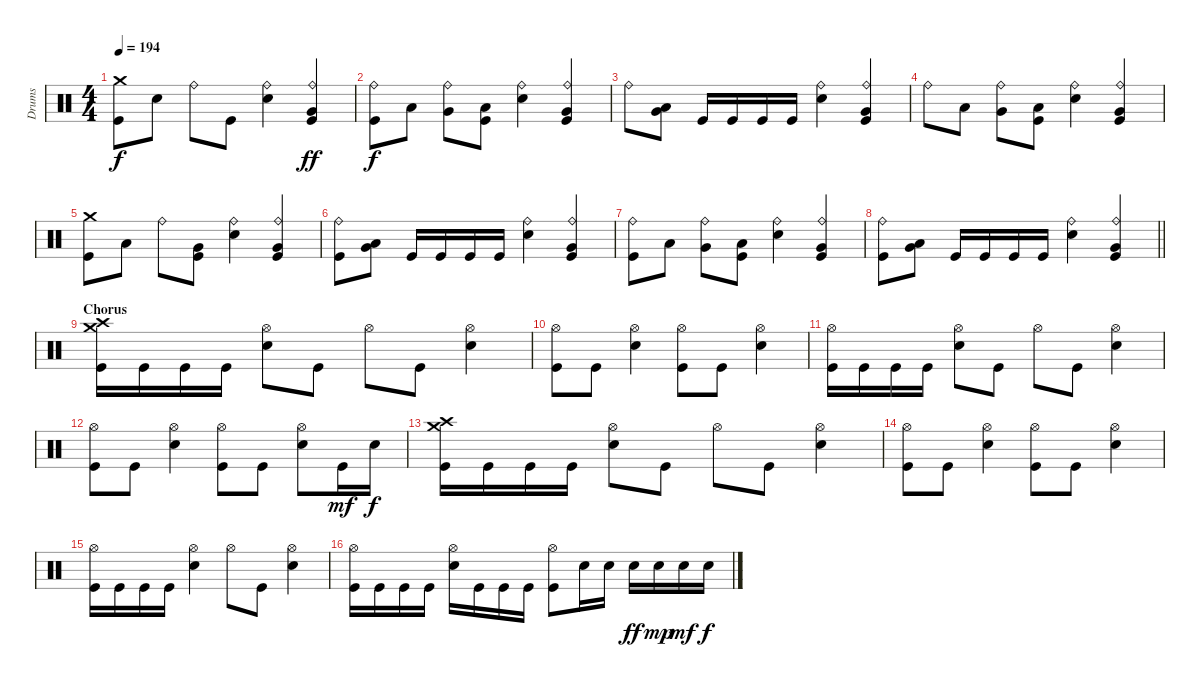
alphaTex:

\track ("Drums" "Drums") {instrument percussion}
\staff {score}
\articulation defaults
\ts (4 4)
\tempo 194
\clef neutral
\ks c
("Crash medium (hit)" "Kick (hit)").8{dy f} "Snare (hit) 2".8 "Ride (bell)".8 "Kick (hit)".8 ("Ride (bell)" "Snare (hit) 2").4 ("Ride (bell)" "Very Low Tom (hit)" "Kick (hit)").4{dy ff} |
("Ride (bell)" "Kick (hit)").8{dy f} "Low Tom (hit)".8 ("Ride (bell)" "Very Low Tom (hit)").8 ("Low Floor Tom (hit)" "Kick (hit)").8 ("Ride (bell)" "Snare (hit) 2").4 ("Ride (bell)" "Very Low Tom (hit)" "Kick (hit)").4 |
"Ride (bell)".8 ("Low Tom (hit)" "Very Low Tom (hit)").8 "Kick (hit)".16 "Kick (hit)".16 "Kick (hit)".16 "Kick (hit)".16 ("Ride (bell)" "Snare (hit) 2").4 ("Ride (bell)" "Very Low Tom (hit)" "Kick (hit)").4 |
"Ride (bell)".8 "Low Tom (hit)".8 ("Ride (bell)" "Very Low Tom (hit)").8 ("Low Floor Tom (hit)" "Kick (hit)").8 ("Ride (bell)" "Snare (hit) 2").4 ("Ride (bell)" "Very Low Tom (hit)" "Kick (hit)").4 |
("Crash medium (hit)" "Kick (hit)").8 "Low Tom (hit)".8 "Ride (bell)".8 ("Very Low Tom (hit)" "Kick (hit)").8 ("Ride (bell)" "Snare (hit) 2").4 ("Ride (bell)" "Very Low Tom (hit)" "Kick (hit)").4 |
("Ride (bell)" "Kick (hit)").8 ("Low Tom (hit)" "Very Low Tom (hit)").8 "Kick (hit)".16 "Kick (hit)".16 "Kick (hit)".16 "Kick (hit)".16 ("Ride (bell)" "Snare (hit) 2").4 ("Ride (bell)" "Very Low Tom (hit)" "Kick (hit)").4 |
("Ride (bell)" "Kick (hit)").8 "Low Tom (hit)".8 ("Ride (bell)" "Very Low Tom (hit)").8 ("Low Floor Tom (hit)" "Kick (hit)").8 ("Ride (bell)" "Snare (hit) 2").4 ("Ride (bell)" "Very Low Tom (hit)" "Kick (hit)").4 |
\barLineRight lightlight
("Ride (bell)" "Kick (hit)").8 ("Low Tom (hit)" "Very Low Tom (hit)").8 "Kick (hit)".16 "Kick (hit)".16 "Kick (hit)".16 "Kick (hit)".16 ("Ride (bell)" "Snare (hit) 2").4 ("Ride (bell)" "Very Low Tom (hit)" "Kick (hit)").4 |
\section ("" "Chorus")
("Crash high (hit)" "Crash medium (hit)" "Kick (hit)").16 "Kick (hit)".16 "Kick (hit)".16 "Kick (hit)".16 ("Hi-Hat (open)" "Snare (hit) 2").8 "Kick (hit)".8 "Hi-Hat (open)".8 "Kick (hit)".8 ("Hi-Hat (open)" "Snare (hit) 2").4 |
("Hi-Hat (open)" "Kick (hit)").8 "Kick (hit)".8 ("Hi-Hat (open)" "Snare (hit) 2").4 ("Hi-Hat (open)" "Kick (hit)").8 "Kick (hit)".8 ("Hi-Hat (open)" "Snare (hit) 2").4 |
("Hi-Hat (open)" "Kick (hit)").16 "Kick (hit)".16 "Kick (hit)".16 "Kick (hit)".16 ("Hi-Hat (open)" "Snare (hit) 2").8 "Kick (hit)".8 "Hi-Hat (open)".8 "Kick (hit)".8 ("Hi-Hat (open)" "Snare (hit) 2").4 |
("Hi-Hat (open)" "Kick (hit)").8 "Kick (hit)".8 ("Hi-Hat (open)" "Snare (hit) 2").4 ("Hi-Hat (open)" "Kick (hit)").8 "Kick (hit)".8 ("Hi-Hat (open)" "Snare (hit) 2").8 "Kick (hit)".16{dy mf} "Snare (hit) 2".16{dy f} |
("Crash medium (hit)" "Crash high (hit)" "Kick (hit)").16 "Kick (hit)".16 "Kick (hit)".16 "Kick (hit)".16 ("Hi-Hat (open)" "Snare (hit) 2").8 "Kick (hit)".8 "Hi-Hat (open)".8 "Kick (hit)".8 ("Hi-Hat (open)" "Snare (hit) 2").4 |
("Hi-Hat (open)" "Kick (hit)").8 "Kick (hit)".8 ("Hi-Hat (open)" "Snare (hit) 2").4 ("Hi-Hat (open)" "Kick (hit)").8 "Kick (hit)".8 ("Hi-Hat (open)" "Snare (hit) 2").4 |
("Hi-Hat (open)" "Kick (hit)").16 "Kick (hit)".16 "Kick (hit)".16 "Kick (hit)".16 ("Hi-Hat (open)" "Snare (hit) 2").4 "Hi-Hat (open)".8 "Kick (hit)".8 ("Hi-Hat (open)" "Snare (hit) 2").4 |
("Hi-Hat (open)" "Kick (hit)").16 "Kick (hit)".16 "Kick (hit)".16 "Kick (hit)".16 ("Hi-Hat (open)" "Snare (hit) 2").16 "Kick (hit)".16 "Kick (hit)".16 "Kick (hit)".16 ("Hi-Hat (open)" "Kick (hit)").8 "Snare (hit) 2".16 "Snare (hit) 2".16 "Snare (hit) 2".16{dy ff} "Snare (hit) 2".16{dy mp} "Snare (hit) 2".16{dy mf} "Snare (hit) 2".16{dy f}
